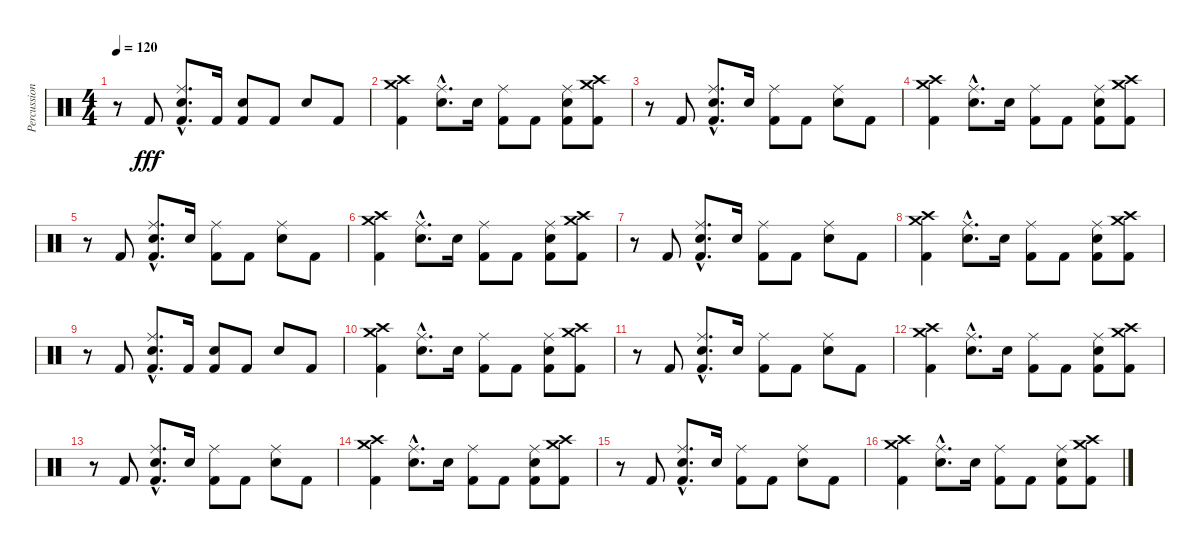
\track ("Percussion" "Percussion") {instrument percussion}
\staff {score}
\articulation defaults
\ts (4 4)
\tempo 120
\clef neutral
\ks c
r.8{dy fff} "Kick (hit) 2".8 ("Ride (middle)"{hac} "Snare (hit) 2"{hac} "Kick (hit) 2"{hac}).8{d} "Kick (hit) 2".16 ("Snare (hit) 2" "Kick (hit) 2").8 "Kick (hit) 2".8 "Snare (hit) 2".8 "Kick (hit) 2".8 |
("Crash high (hit)" "Crash medium (hit)" "Kick (hit) 2").4 ("Ride (middle)"{hac} "Snare (hit) 2"{hac}).8{d} "Snare (hit) 2".16 ("Ride (middle)" "Kick (hit) 2").8 "Kick (hit) 2".8 ("Ride (middle)" "Snare (hit) 2" "Kick (hit) 2").8 ("Crash medium (hit)" "Crash high (hit)" "Kick (hit) 2").8 |
r.8 "Kick (hit) 2".8 ("Ride (middle)"{hac} "Snare (hit) 2"{hac} "Kick (hit) 2"{hac}).8{d} "Snare (hit) 2".16 ("Ride (middle)" "Kick (hit) 2").8 "Kick (hit) 2".8 ("Ride (middle)" "Snare (hit) 2").8 "Kick (hit) 2".8 |
("Crash high (hit)" "Crash medium (hit)" "Kick (hit) 2").4 ("Ride (middle)"{hac} "Snare (hit) 2"{hac}).8{d} "Snare (hit) 2".16 ("Ride (middle)" "Kick (hit) 2").8 "Kick (hit) 2".8 ("Ride (middle)" "Snare (hit) 2" "Kick (hit) 2").8 ("Crash medium (hit)" "Crash high (hit)" "Kick (hit) 2").8 |
r.8 "Kick (hit) 2".8 ("Ride (middle)"{hac} "Snare (hit) 2"{hac} "Kick (hit) 2"{hac}).8{d} "Snare (hit) 2".16 ("Ride (middle)" "Kick (hit) 2").8 "Kick (hit) 2".8 ("Ride (middle)" "Snare (hit) 2").8 "Kick (hit) 2".8 |
("Crash high (hit)" "Crash medium (hit)" "Kick (hit) 2").4 ("Ride (middle)"{hac} "Snare (hit) 2"{hac}).8{d} "Snare (hit) 2".16 ("Ride (middle)" "Kick (hit) 2").8 "Kick (hit) 2".8 ("Ride (middle)" "Snare (hit) 2" "Kick (hit) 2").8 ("Crash medium (hit)" "Crash high (hit)" "Kick (hit) 2").8 |
r.8 "Kick (hit) 2".8 ("Ride (middle)"{hac} "Snare (hit) 2"{hac} "Kick (hit) 2"{hac}).8{d} "Snare (hit) 2".16 ("Ride (middle)" "Kick (hit) 2").8 "Kick (hit) 2".8 ("Ride (middle)" "Snare (hit) 2").8 "Kick (hit) 2".8 |
("Crash high (hit)" "Crash medium (hit)" "Kick (hit) 2").4 ("Ride (middle)"{hac} "Snare (hit) 2"{hac}).8{d} "Snare (hit) 2".16 ("Ride (middle)" "Kick (hit) 2").8 "Kick (hit) 2".8 ("Ride (middle)" "Snare (hit) 2" "Kick (hit) 2").8 ("Crash medium (hit)" "Crash high (hit)" "Kick (hit) 2").8 |
r.8 "Kick (hit) 2".8 ("Ride (middle)"{hac} "Snare (hit) 2"{hac} "Kick (hit) 2"{hac}).8{d} "Kick (hit) 2".16 ("Snare (hit) 2" "Kick (hit) 2").8 "Kick (hit) 2".8 "Snare (hit) 2".8 "Kick (hit) 2".8 |
("Crash high (hit)" "Crash medium (hit)" "Kick (hit) 2").4 ("Ride (middle)"{hac} "Snare (hit) 2"{hac}).8{d} "Snare (hit) 2".16 ("Ride (middle)" "Kick (hit) 2").8 "Kick (hit) 2".8 ("Ride (middle)" "Snare (hit) 2" "Kick (hit) 2").8 ("Crash medium (hit)" "Crash high (hit)" "Kick (hit) 2").8 |
r.8 "Kick (hit) 2".8 ("Ride (middle)"{hac} "Snare (hit) 2"{hac} "Kick (hit) 2"{hac}).8{d} "Snare (hit) 2".16 ("Ride (middle)" "Kick (hit) 2").8 "Kick (hit) 2".8 ("Ride (middle)" "Snare (hit) 2").8 "Kick (hit) 2".8 |
("Crash high (hit)" "Crash medium (hit)" "Kick (hit) 2").4 ("Ride (middle)"{hac} "Snare (hit) 2"{hac}).8{d} "Snare (hit) 2".16 ("Ride (middle)" "Kick (hit) 2").8 "Kick (hit) 2".8 ("Ride (middle)" "Snare (hit) 2" "Kick (hit) 2").8 ("Crash medium (hit)" "Crash high (hit)" "Kick (hit) 2").8 |
r.8 "Kick (hit) 2".8 ("Ride (middle)"{hac} "Snare (hit) 2"{hac} "Kick (hit) 2"{hac}).8{d} "Snare (hit) 2".16 ("Ride (middle)" "Kick (hit) 2").8 "Kick (hit) 2".8 ("Ride (middle)" "Snare (hit) 2").8 "Kick (hit) 2".8 |
("Crash high (hit)" "Crash medium (hit)" "Kick (hit) 2").4 ("Ride (middle)"{hac} "Snare (hit) 2"{hac}).8{d} "Snare (hit) 2".16 ("Ride (middle)" "Kick (hit) 2").8 "Kick (hit) 2".8 ("Ride (middle)" "Snare (hit) 2" "Kick (hit) 2").8 ("Crash medium (hit)" "Crash high (hit)" "Kick (hit) 2").8 |
r.8 "Kick (hit) 2".8 ("Ride (middle)"{hac} "Snare (hit) 2"{hac} "Kick (hit) 2"{hac}).8{d} "Snare (hit) 2".16 ("Ride (middle)" "Kick (hit) 2").8 "Kick (hit) 2".8 ("Ride (middle)" "Snare (hit) 2").8 "Kick (hit) 2".8 |
("Crash high (hit)" "Crash medium (hit)" "Kick (hit) 2").4 ("Ride (middle)"{hac} "Snare (hit) 2"{hac}).8{d} "Snare (hit) 2".16 ("Ride (middle)" "Kick (hit) 2").8 "Kick (hit) 2".8 ("Ride (middle)" "Snare (hit) 2" "Kick (hit) 2").8 ("Crash medium (hit)" "Crash high (hit)" "Kick (hit) 2").8
